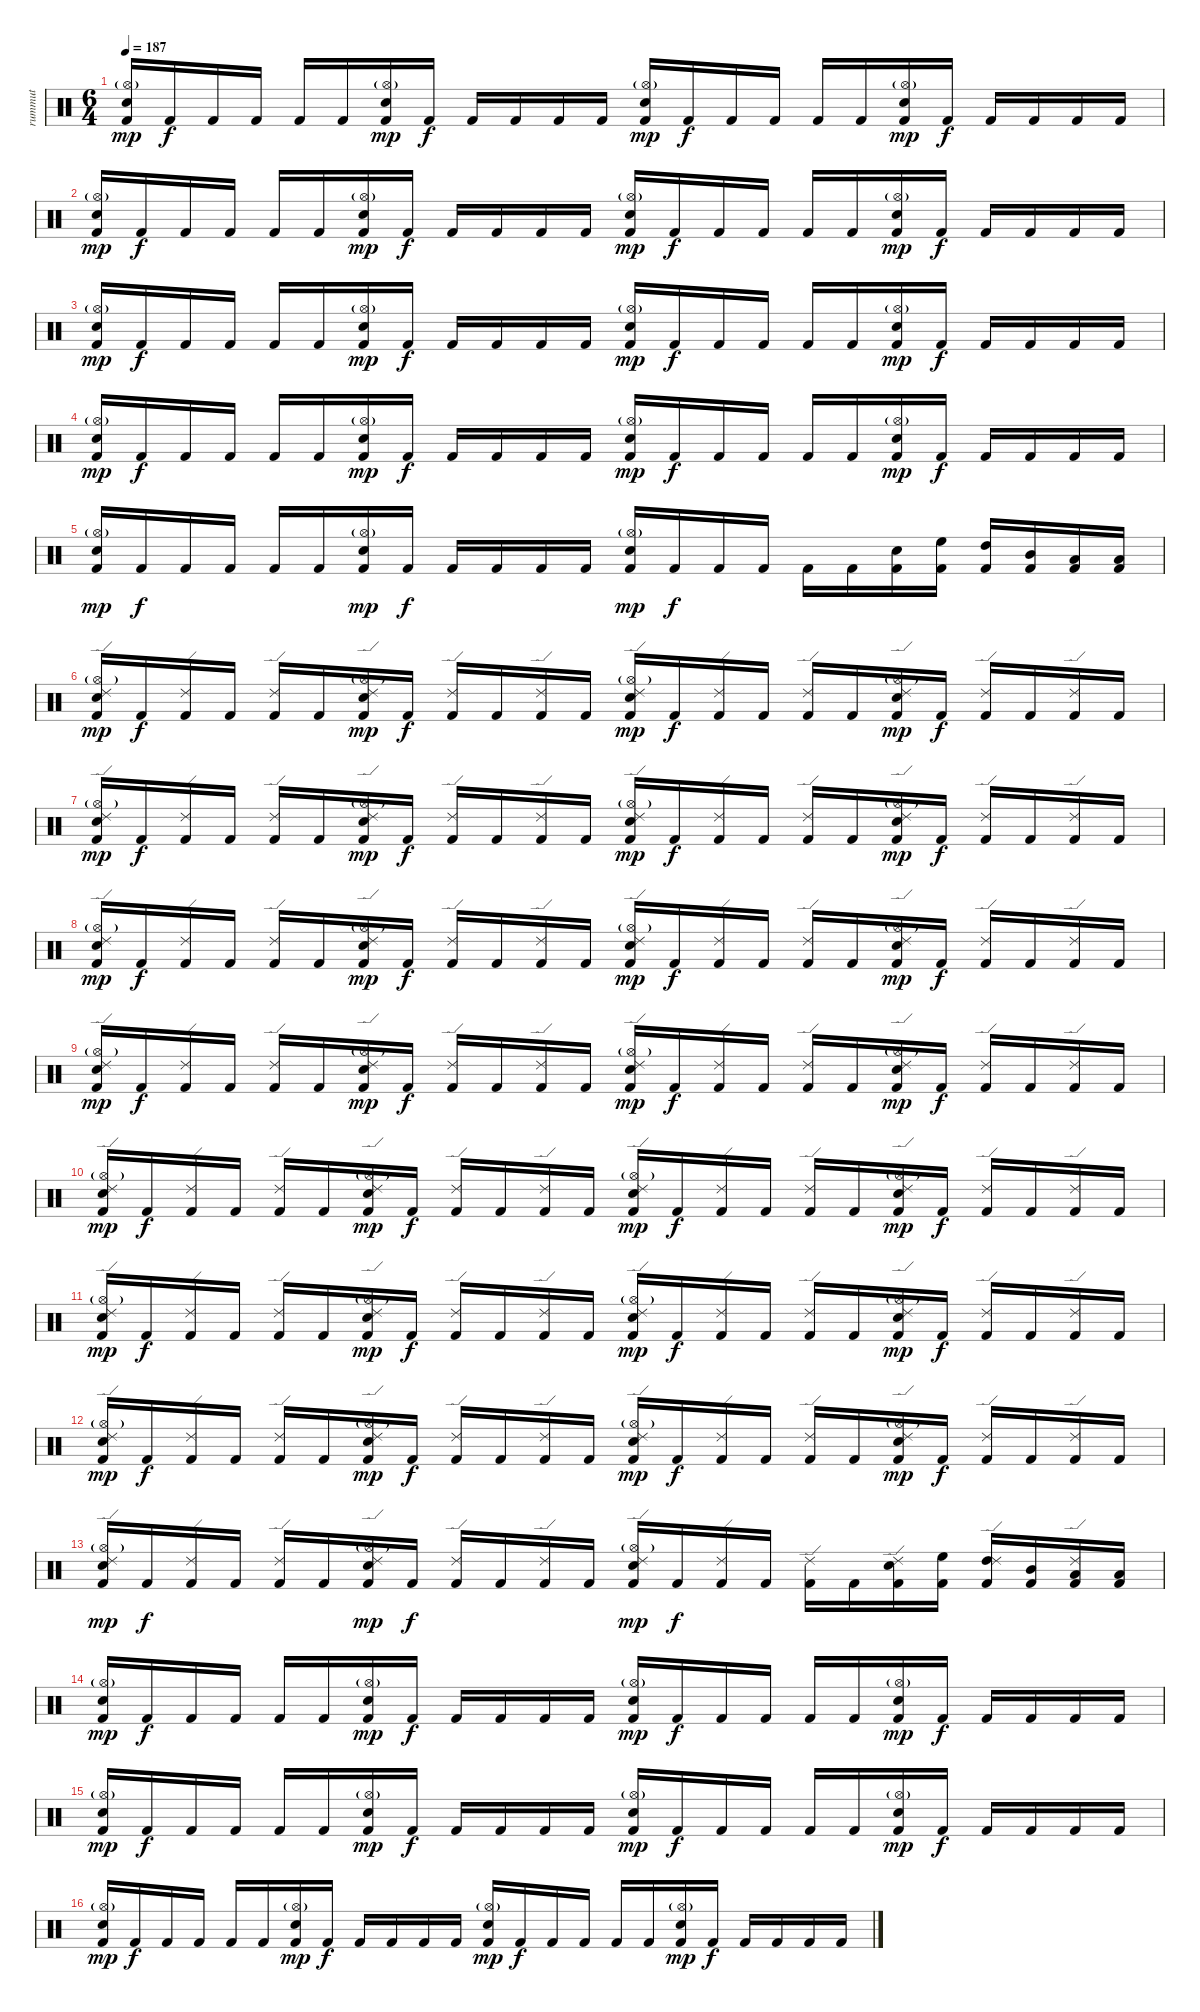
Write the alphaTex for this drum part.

\track ("rummut" "rummut") {instrument percussion}
\staff {score}
\articulation defaults
\ts (6 4)
\tempo 187
\clef neutral
\ks c
("Kick (hit) 2" "Hi-Hat (open)"{g} "Snare (hit) 2").16{dy mp} "Kick (hit) 2".16{dy f} "Kick (hit) 2".16 "Kick (hit) 2".16 "Kick (hit) 2".16 "Kick (hit) 2".16 ("Kick (hit) 2" "Hi-Hat (open)"{g} "Snare (hit) 2").16{dy mp} "Kick (hit) 2".16{dy f} "Kick (hit) 2".16 "Kick (hit) 2".16 "Kick (hit) 2".16 "Kick (hit) 2".16 ("Kick (hit) 2" "Hi-Hat (open)"{g} "Snare (hit) 2").16{dy mp} "Kick (hit) 2".16{dy f} "Kick (hit) 2".16 "Kick (hit) 2".16 "Kick (hit) 2".16 "Kick (hit) 2".16 ("Kick (hit) 2" "Hi-Hat (open)"{g} "Snare (hit) 2").16{dy mp} "Kick (hit) 2".16{dy f} "Kick (hit) 2".16 "Kick (hit) 2".16 "Kick (hit) 2".16 "Kick (hit) 2".16 |
("Kick (hit) 2" "Hi-Hat (open)"{g} "Snare (hit) 2").16{dy mp} "Kick (hit) 2".16{dy f} "Kick (hit) 2".16 "Kick (hit) 2".16 "Kick (hit) 2".16 "Kick (hit) 2".16 ("Kick (hit) 2" "Hi-Hat (open)"{g} "Snare (hit) 2").16{dy mp} "Kick (hit) 2".16{dy f} "Kick (hit) 2".16 "Kick (hit) 2".16 "Kick (hit) 2".16 "Kick (hit) 2".16 ("Kick (hit) 2" "Hi-Hat (open)"{g} "Snare (hit) 2").16{dy mp} "Kick (hit) 2".16{dy f} "Kick (hit) 2".16 "Kick (hit) 2".16 "Kick (hit) 2".16 "Kick (hit) 2".16 ("Kick (hit) 2" "Hi-Hat (open)"{g} "Snare (hit) 2").16{dy mp} "Kick (hit) 2".16{dy f} "Kick (hit) 2".16 "Kick (hit) 2".16 "Kick (hit) 2".16 "Kick (hit) 2".16 |
("Kick (hit) 2" "Hi-Hat (open)"{g} "Snare (hit) 2").16{dy mp} "Kick (hit) 2".16{dy f} "Kick (hit) 2".16 "Kick (hit) 2".16 "Kick (hit) 2".16 "Kick (hit) 2".16 ("Kick (hit) 2" "Hi-Hat (open)"{g} "Snare (hit) 2").16{dy mp} "Kick (hit) 2".16{dy f} "Kick (hit) 2".16 "Kick (hit) 2".16 "Kick (hit) 2".16 "Kick (hit) 2".16 ("Kick (hit) 2" "Hi-Hat (open)"{g} "Snare (hit) 2").16{dy mp} "Kick (hit) 2".16{dy f} "Kick (hit) 2".16 "Kick (hit) 2".16 "Kick (hit) 2".16 "Kick (hit) 2".16 ("Kick (hit) 2" "Hi-Hat (open)"{g} "Snare (hit) 2").16{dy mp} "Kick (hit) 2".16{dy f} "Kick (hit) 2".16 "Kick (hit) 2".16 "Kick (hit) 2".16 "Kick (hit) 2".16 |
("Kick (hit) 2" "Hi-Hat (open)"{g} "Snare (hit) 2").16{dy mp} "Kick (hit) 2".16{dy f} "Kick (hit) 2".16 "Kick (hit) 2".16 "Kick (hit) 2".16 "Kick (hit) 2".16 ("Kick (hit) 2" "Hi-Hat (open)"{g} "Snare (hit) 2").16{dy mp} "Kick (hit) 2".16{dy f} "Kick (hit) 2".16 "Kick (hit) 2".16 "Kick (hit) 2".16 "Kick (hit) 2".16 ("Kick (hit) 2" "Hi-Hat (open)"{g} "Snare (hit) 2").16{dy mp} "Kick (hit) 2".16{dy f} "Kick (hit) 2".16 "Kick (hit) 2".16 "Kick (hit) 2".16 "Kick (hit) 2".16 ("Kick (hit) 2" "Hi-Hat (open)"{g} "Snare (hit) 2").16{dy mp} "Kick (hit) 2".16{dy f} "Kick (hit) 2".16 "Kick (hit) 2".16 "Kick (hit) 2".16 "Kick (hit) 2".16 |
("Kick (hit) 2" "Hi-Hat (open)"{g} "Snare (hit) 2").16{dy mp} "Kick (hit) 2".16{dy f} "Kick (hit) 2".16 "Kick (hit) 2".16 "Kick (hit) 2".16 "Kick (hit) 2".16 ("Kick (hit) 2" "Hi-Hat (open)"{g} "Snare (hit) 2").16{dy mp} "Kick (hit) 2".16{dy f} "Kick (hit) 2".16 "Kick (hit) 2".16 "Kick (hit) 2".16 "Kick (hit) 2".16 ("Kick (hit) 2" "Hi-Hat (open)"{g} "Snare (hit) 2").16{dy mp} "Kick (hit) 2".16{dy f} "Kick (hit) 2".16 "Kick (hit) 2".16 "Kick (hit) 2".16 "Kick (hit) 2".16 ("Kick (hit) 2" "Snare (hit) 2").16 ("Kick (hit) 2" "High Floor Tom (hit)").16 ("Kick (hit) 2" "High Tom (hit)").16 ("Kick (hit) 2" "Mid Tom (hit)").16 ("Kick (hit) 2" "Low Tom (hit)").16 ("Kick (hit) 2" "Low Floor Tom (hit)").16 |
("Kick (hit) 2" "Hi-Hat (open)"{g} "Snare (hit) 2" "Ride (edge) 2").16{dy mp} "Kick (hit) 2".16{dy f} ("Kick (hit) 2" "Ride (edge) 2").16 "Kick (hit) 2".16 ("Kick (hit) 2" "Ride (edge) 2").16 "Kick (hit) 2".16 ("Kick (hit) 2" "Hi-Hat (open)"{g} "Snare (hit) 2" "Ride (edge) 2").16{dy mp} "Kick (hit) 2".16{dy f} ("Kick (hit) 2" "Ride (edge) 2").16 "Kick (hit) 2".16 ("Kick (hit) 2" "Ride (edge) 2").16 "Kick (hit) 2".16 ("Kick (hit) 2" "Hi-Hat (open)"{g} "Snare (hit) 2" "Ride (edge) 2").16{dy mp} "Kick (hit) 2".16{dy f} ("Kick (hit) 2" "Ride (edge) 2").16 "Kick (hit) 2".16 ("Kick (hit) 2" "Ride (edge) 2").16 "Kick (hit) 2".16 ("Kick (hit) 2" "Hi-Hat (open)"{g} "Snare (hit) 2" "Ride (edge) 2").16{dy mp} "Kick (hit) 2".16{dy f} ("Kick (hit) 2" "Ride (edge) 2").16 "Kick (hit) 2".16 ("Kick (hit) 2" "Ride (edge) 2").16 "Kick (hit) 2".16 |
("Kick (hit) 2" "Hi-Hat (open)"{g} "Snare (hit) 2" "Ride (edge) 2").16{dy mp} "Kick (hit) 2".16{dy f} ("Kick (hit) 2" "Ride (edge) 2").16 "Kick (hit) 2".16 ("Kick (hit) 2" "Ride (edge) 2").16 "Kick (hit) 2".16 ("Kick (hit) 2" "Hi-Hat (open)"{g} "Snare (hit) 2" "Ride (edge) 2").16{dy mp} "Kick (hit) 2".16{dy f} ("Kick (hit) 2" "Ride (edge) 2").16 "Kick (hit) 2".16 ("Kick (hit) 2" "Ride (edge) 2").16 "Kick (hit) 2".16 ("Kick (hit) 2" "Hi-Hat (open)"{g} "Snare (hit) 2" "Ride (edge) 2").16{dy mp} "Kick (hit) 2".16{dy f} ("Kick (hit) 2" "Ride (edge) 2").16 "Kick (hit) 2".16 ("Kick (hit) 2" "Ride (edge) 2").16 "Kick (hit) 2".16 ("Kick (hit) 2" "Hi-Hat (open)"{g} "Snare (hit) 2" "Ride (edge) 2").16{dy mp} "Kick (hit) 2".16{dy f} ("Kick (hit) 2" "Ride (edge) 2").16 "Kick (hit) 2".16 ("Kick (hit) 2" "Ride (edge) 2").16 "Kick (hit) 2".16 |
("Kick (hit) 2" "Hi-Hat (open)"{g} "Snare (hit) 2" "Ride (edge) 2").16{dy mp} "Kick (hit) 2".16{dy f} ("Kick (hit) 2" "Ride (edge) 2").16 "Kick (hit) 2".16 ("Kick (hit) 2" "Ride (edge) 2").16 "Kick (hit) 2".16 ("Kick (hit) 2" "Hi-Hat (open)"{g} "Snare (hit) 2" "Ride (edge) 2").16{dy mp} "Kick (hit) 2".16{dy f} ("Kick (hit) 2" "Ride (edge) 2").16 "Kick (hit) 2".16 ("Kick (hit) 2" "Ride (edge) 2").16 "Kick (hit) 2".16 ("Kick (hit) 2" "Hi-Hat (open)"{g} "Snare (hit) 2" "Ride (edge) 2").16{dy mp} "Kick (hit) 2".16{dy f} ("Kick (hit) 2" "Ride (edge) 2").16 "Kick (hit) 2".16 ("Kick (hit) 2" "Ride (edge) 2").16 "Kick (hit) 2".16 ("Kick (hit) 2" "Hi-Hat (open)"{g} "Snare (hit) 2" "Ride (edge) 2").16{dy mp} "Kick (hit) 2".16{dy f} ("Kick (hit) 2" "Ride (edge) 2").16 "Kick (hit) 2".16 ("Kick (hit) 2" "Ride (edge) 2").16 "Kick (hit) 2".16 |
("Kick (hit) 2" "Hi-Hat (open)"{g} "Snare (hit) 2" "Ride (edge) 2").16{dy mp} "Kick (hit) 2".16{dy f} ("Kick (hit) 2" "Ride (edge) 2").16 "Kick (hit) 2".16 ("Kick (hit) 2" "Ride (edge) 2").16 "Kick (hit) 2".16 ("Kick (hit) 2" "Hi-Hat (open)"{g} "Snare (hit) 2" "Ride (edge) 2").16{dy mp} "Kick (hit) 2".16{dy f} ("Kick (hit) 2" "Ride (edge) 2").16 "Kick (hit) 2".16 ("Kick (hit) 2" "Ride (edge) 2").16 "Kick (hit) 2".16 ("Kick (hit) 2" "Hi-Hat (open)"{g} "Snare (hit) 2" "Ride (edge) 2").16{dy mp} "Kick (hit) 2".16{dy f} ("Kick (hit) 2" "Ride (edge) 2").16 "Kick (hit) 2".16 ("Kick (hit) 2" "Ride (edge) 2").16 "Kick (hit) 2".16 ("Kick (hit) 2" "Hi-Hat (open)"{g} "Snare (hit) 2" "Ride (edge) 2").16{dy mp} "Kick (hit) 2".16{dy f} ("Kick (hit) 2" "Ride (edge) 2").16 "Kick (hit) 2".16 ("Kick (hit) 2" "Ride (edge) 2").16 "Kick (hit) 2".16 |
("Kick (hit) 2" "Hi-Hat (open)"{g} "Snare (hit) 2" "Ride (edge) 2").16{dy mp} "Kick (hit) 2".16{dy f} ("Kick (hit) 2" "Ride (edge) 2").16 "Kick (hit) 2".16 ("Kick (hit) 2" "Ride (edge) 2").16 "Kick (hit) 2".16 ("Kick (hit) 2" "Hi-Hat (open)"{g} "Snare (hit) 2" "Ride (edge) 2").16{dy mp} "Kick (hit) 2".16{dy f} ("Kick (hit) 2" "Ride (edge) 2").16 "Kick (hit) 2".16 ("Kick (hit) 2" "Ride (edge) 2").16 "Kick (hit) 2".16 ("Kick (hit) 2" "Hi-Hat (open)"{g} "Snare (hit) 2" "Ride (edge) 2").16{dy mp} "Kick (hit) 2".16{dy f} ("Kick (hit) 2" "Ride (edge) 2").16 "Kick (hit) 2".16 ("Kick (hit) 2" "Ride (edge) 2").16 "Kick (hit) 2".16 ("Kick (hit) 2" "Hi-Hat (open)"{g} "Snare (hit) 2" "Ride (edge) 2").16{dy mp} "Kick (hit) 2".16{dy f} ("Kick (hit) 2" "Ride (edge) 2").16 "Kick (hit) 2".16 ("Kick (hit) 2" "Ride (edge) 2").16 "Kick (hit) 2".16 |
("Kick (hit) 2" "Hi-Hat (open)"{g} "Snare (hit) 2" "Ride (edge) 2").16{dy mp} "Kick (hit) 2".16{dy f} ("Kick (hit) 2" "Ride (edge) 2").16 "Kick (hit) 2".16 ("Kick (hit) 2" "Ride (edge) 2").16 "Kick (hit) 2".16 ("Kick (hit) 2" "Hi-Hat (open)"{g} "Snare (hit) 2" "Ride (edge) 2").16{dy mp} "Kick (hit) 2".16{dy f} ("Kick (hit) 2" "Ride (edge) 2").16 "Kick (hit) 2".16 ("Kick (hit) 2" "Ride (edge) 2").16 "Kick (hit) 2".16 ("Kick (hit) 2" "Hi-Hat (open)"{g} "Snare (hit) 2" "Ride (edge) 2").16{dy mp} "Kick (hit) 2".16{dy f} ("Kick (hit) 2" "Ride (edge) 2").16 "Kick (hit) 2".16 ("Kick (hit) 2" "Ride (edge) 2").16 "Kick (hit) 2".16 ("Kick (hit) 2" "Hi-Hat (open)"{g} "Snare (hit) 2" "Ride (edge) 2").16{dy mp} "Kick (hit) 2".16{dy f} ("Kick (hit) 2" "Ride (edge) 2").16 "Kick (hit) 2".16 ("Kick (hit) 2" "Ride (edge) 2").16 "Kick (hit) 2".16 |
("Kick (hit) 2" "Hi-Hat (open)"{g} "Snare (hit) 2" "Ride (edge) 2").16{dy mp} "Kick (hit) 2".16{dy f} ("Kick (hit) 2" "Ride (edge) 2").16 "Kick (hit) 2".16 ("Kick (hit) 2" "Ride (edge) 2").16 "Kick (hit) 2".16 ("Kick (hit) 2" "Hi-Hat (open)"{g} "Snare (hit) 2" "Ride (edge) 2").16{dy mp} "Kick (hit) 2".16{dy f} ("Kick (hit) 2" "Ride (edge) 2").16 "Kick (hit) 2".16 ("Kick (hit) 2" "Ride (edge) 2").16 "Kick (hit) 2".16 ("Kick (hit) 2" "Hi-Hat (open)"{g} "Snare (hit) 2" "Ride (edge) 2").16{dy mp} "Kick (hit) 2".16{dy f} ("Kick (hit) 2" "Ride (edge) 2").16 "Kick (hit) 2".16 ("Kick (hit) 2" "Ride (edge) 2").16 "Kick (hit) 2".16 ("Kick (hit) 2" "Hi-Hat (open)"{g} "Snare (hit) 2" "Ride (edge) 2").16{dy mp} "Kick (hit) 2".16{dy f} ("Kick (hit) 2" "Ride (edge) 2").16 "Kick (hit) 2".16 ("Kick (hit) 2" "Ride (edge) 2").16 "Kick (hit) 2".16 |
("Kick (hit) 2" "Hi-Hat (open)"{g} "Snare (hit) 2" "Ride (edge) 2").16{dy mp} "Kick (hit) 2".16{dy f} ("Kick (hit) 2" "Ride (edge) 2").16 "Kick (hit) 2".16 ("Kick (hit) 2" "Ride (edge) 2").16 "Kick (hit) 2".16 ("Kick (hit) 2" "Hi-Hat (open)"{g} "Snare (hit) 2" "Ride (edge) 2").16{dy mp} "Kick (hit) 2".16{dy f} ("Kick (hit) 2" "Ride (edge) 2").16 "Kick (hit) 2".16 ("Kick (hit) 2" "Ride (edge) 2").16 "Kick (hit) 2".16 ("Kick (hit) 2" "Hi-Hat (open)"{g} "Snare (hit) 2" "Ride (edge) 2").16{dy mp} "Kick (hit) 2".16{dy f} ("Kick (hit) 2" "Ride (edge) 2").16 "Kick (hit) 2".16 ("Kick (hit) 2" "Ride (edge) 2").16 "Kick (hit) 2".16 ("Kick (hit) 2" "Snare (hit) 2" "Ride (edge) 2").16 ("Kick (hit) 2" "High Floor Tom (hit)").16 ("Kick (hit) 2" "High Tom (hit)" "Ride (edge) 2").16 ("Kick (hit) 2" "Mid Tom (hit)").16 ("Kick (hit) 2" "Low Tom (hit)" "Ride (edge) 2").16 ("Kick (hit) 2" "Low Floor Tom (hit)").16 |
("Kick (hit) 2" "Hi-Hat (open)"{g} "Snare (hit) 2").16{dy mp} "Kick (hit) 2".16{dy f} "Kick (hit) 2".16 "Kick (hit) 2".16 "Kick (hit) 2".16 "Kick (hit) 2".16 ("Kick (hit) 2" "Hi-Hat (open)"{g} "Snare (hit) 2").16{dy mp} "Kick (hit) 2".16{dy f} "Kick (hit) 2".16 "Kick (hit) 2".16 "Kick (hit) 2".16 "Kick (hit) 2".16 ("Kick (hit) 2" "Hi-Hat (open)"{g} "Snare (hit) 2").16{dy mp} "Kick (hit) 2".16{dy f} "Kick (hit) 2".16 "Kick (hit) 2".16 "Kick (hit) 2".16 "Kick (hit) 2".16 ("Kick (hit) 2" "Hi-Hat (open)"{g} "Snare (hit) 2").16{dy mp} "Kick (hit) 2".16{dy f} "Kick (hit) 2".16 "Kick (hit) 2".16 "Kick (hit) 2".16 "Kick (hit) 2".16 |
("Kick (hit) 2" "Hi-Hat (open)"{g} "Snare (hit) 2").16{dy mp} "Kick (hit) 2".16{dy f} "Kick (hit) 2".16 "Kick (hit) 2".16 "Kick (hit) 2".16 "Kick (hit) 2".16 ("Kick (hit) 2" "Hi-Hat (open)"{g} "Snare (hit) 2").16{dy mp} "Kick (hit) 2".16{dy f} "Kick (hit) 2".16 "Kick (hit) 2".16 "Kick (hit) 2".16 "Kick (hit) 2".16 ("Kick (hit) 2" "Hi-Hat (open)"{g} "Snare (hit) 2").16{dy mp} "Kick (hit) 2".16{dy f} "Kick (hit) 2".16 "Kick (hit) 2".16 "Kick (hit) 2".16 "Kick (hit) 2".16 ("Kick (hit) 2" "Hi-Hat (open)"{g} "Snare (hit) 2").16{dy mp} "Kick (hit) 2".16{dy f} "Kick (hit) 2".16 "Kick (hit) 2".16 "Kick (hit) 2".16 "Kick (hit) 2".16 |
("Kick (hit) 2" "Hi-Hat (open)"{g} "Snare (hit) 2").16{dy mp} "Kick (hit) 2".16{dy f} "Kick (hit) 2".16 "Kick (hit) 2".16 "Kick (hit) 2".16 "Kick (hit) 2".16 ("Kick (hit) 2" "Hi-Hat (open)"{g} "Snare (hit) 2").16{dy mp} "Kick (hit) 2".16{dy f} "Kick (hit) 2".16 "Kick (hit) 2".16 "Kick (hit) 2".16 "Kick (hit) 2".16 ("Kick (hit) 2" "Hi-Hat (open)"{g} "Snare (hit) 2").16{dy mp} "Kick (hit) 2".16{dy f} "Kick (hit) 2".16 "Kick (hit) 2".16 "Kick (hit) 2".16 "Kick (hit) 2".16 ("Kick (hit) 2" "Hi-Hat (open)"{g} "Snare (hit) 2").16{dy mp} "Kick (hit) 2".16{dy f} "Kick (hit) 2".16 "Kick (hit) 2".16 "Kick (hit) 2".16 "Kick (hit) 2".16
